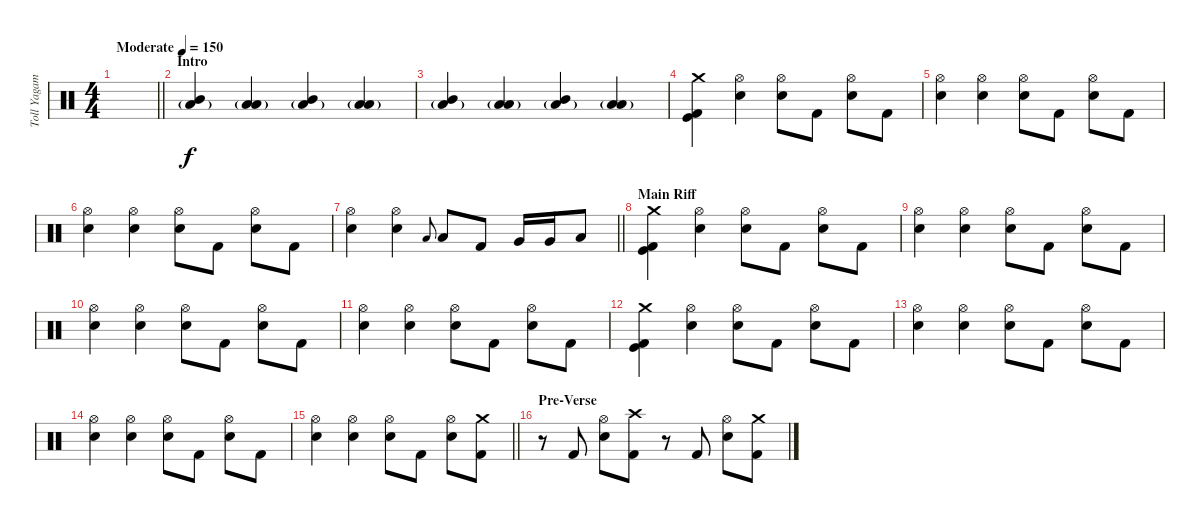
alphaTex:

\track ("Toll Yagami" "Toll Yagam") {instrument percussion}
\staff {score}
\articulation defaults
\ts (4 4)
\tempo (150 "Moderate")
\clef neutral
\barLineRight lightlight
\ks c
|
\section ("" "Intro")
("Mid Tom (hit)" "Low Floor Tom (hit)"{g}).4 ("Low Tom (hit)" "Low Floor Tom (hit)"{g}).4 ("Mid Tom (hit)" "Low Floor Tom (hit)"{g}).4 ("Low Tom (hit)" "Low Floor Tom (hit)"{g}).4 |
("Mid Tom (hit)" "Low Floor Tom (hit)"{g}).4 ("Low Tom (hit)" "Low Floor Tom (hit)"{g}).4 ("Mid Tom (hit)" "Low Floor Tom (hit)"{g}).4 ("Low Tom (hit)" "Low Floor Tom (hit)"{g}).4 |
("Crash medium (hit)" "Kick (hit) 2" "Kick (hit)").4{dy f} ("Hi-Hat (open)" "Electric Snare (hit)").4 ("Hi-Hat (open)" "Electric Snare (hit)").8 "Kick (hit) 2".8 ("Hi-Hat (open)" "Electric Snare (hit)").8 "Kick (hit) 2".8 |
("Hi-Hat (open)" "Electric Snare (hit)").4 ("Hi-Hat (open)" "Electric Snare (hit)").4 ("Hi-Hat (open)" "Electric Snare (hit)").8 "Kick (hit) 2".8 ("Hi-Hat (open)" "Electric Snare (hit)").8 "Kick (hit) 2".8 |
("Hi-Hat (open)" "Electric Snare (hit)").4 ("Hi-Hat (open)" "Electric Snare (hit)").4 ("Hi-Hat (open)" "Electric Snare (hit)").8 "Kick (hit) 2".8 ("Hi-Hat (open)" "Electric Snare (hit)").8 "Kick (hit) 2".8 |
\barLineRight lightlight
("Hi-Hat (open)" "Electric Snare (hit)").4 ("Hi-Hat (open)" "Electric Snare (hit)").4 "Low Tom (hit)".8{gr onbeat} "Low Tom (hit)".8 "Kick (hit) 2".8 "Very Low Tom (hit)".16 "Very Low Tom (hit)".16 "Low Floor Tom (hit)".8 |
\section ("" "Main Riff")
("Crash medium (hit)" "Kick (hit) 2" "Kick (hit)").4 ("Hi-Hat (open)" "Electric Snare (hit)").4 ("Hi-Hat (open)" "Electric Snare (hit)").8 "Kick (hit) 2".8 ("Hi-Hat (open)" "Electric Snare (hit)").8 "Kick (hit) 2".8 |
("Hi-Hat (open)" "Electric Snare (hit)").4 ("Hi-Hat (open)" "Electric Snare (hit)").4 ("Hi-Hat (open)" "Electric Snare (hit)").8 "Kick (hit) 2".8 ("Hi-Hat (open)" "Electric Snare (hit)").8 "Kick (hit) 2".8 |
("Hi-Hat (open)" "Electric Snare (hit)").4 ("Hi-Hat (open)" "Electric Snare (hit)").4 ("Hi-Hat (open)" "Electric Snare (hit)").8 "Kick (hit) 2".8 ("Hi-Hat (open)" "Electric Snare (hit)").8 "Kick (hit) 2".8 |
("Hi-Hat (open)" "Electric Snare (hit)").4 ("Hi-Hat (open)" "Electric Snare (hit)").4 ("Hi-Hat (open)" "Electric Snare (hit)").8 "Kick (hit) 2".8 ("Hi-Hat (open)" "Electric Snare (hit)").8 "Kick (hit) 2".8 |
("Crash medium (hit)" "Kick (hit) 2" "Kick (hit)").4 ("Hi-Hat (open)" "Electric Snare (hit)").4 ("Hi-Hat (open)" "Electric Snare (hit)").8 "Kick (hit) 2".8 ("Hi-Hat (open)" "Electric Snare (hit)").8 "Kick (hit) 2".8 |
("Hi-Hat (open)" "Electric Snare (hit)").4 ("Hi-Hat (open)" "Electric Snare (hit)").4 ("Hi-Hat (open)" "Electric Snare (hit)").8 "Kick (hit) 2".8 ("Hi-Hat (open)" "Electric Snare (hit)").8 "Kick (hit) 2".8 |
("Hi-Hat (open)" "Electric Snare (hit)").4 ("Hi-Hat (open)" "Electric Snare (hit)").4 ("Hi-Hat (open)" "Electric Snare (hit)").8 "Kick (hit) 2".8 ("Hi-Hat (open)" "Electric Snare (hit)").8 "Kick (hit) 2".8 |
\barLineRight lightlight
("Hi-Hat (open)" "Electric Snare (hit)").4 ("Hi-Hat (open)" "Electric Snare (hit)").4 ("Hi-Hat (open)" "Electric Snare (hit)").8 "Kick (hit) 2".8 ("Hi-Hat (open)" "Electric Snare (hit)").8 ("Crash medium (hit)" "Kick (hit) 2").8 |
\section ("" "Pre-Verse")
r.8 "Kick (hit) 2".8 ("Hi-Hat (open)" "Electric Snare (hit)").8 ("Crash high (hit)" "Kick (hit) 2").8 r.8 "Kick (hit) 2".8 ("Hi-Hat (open)" "Electric Snare (hit)").8 ("Crash medium (hit)" "Kick (hit) 2").8
